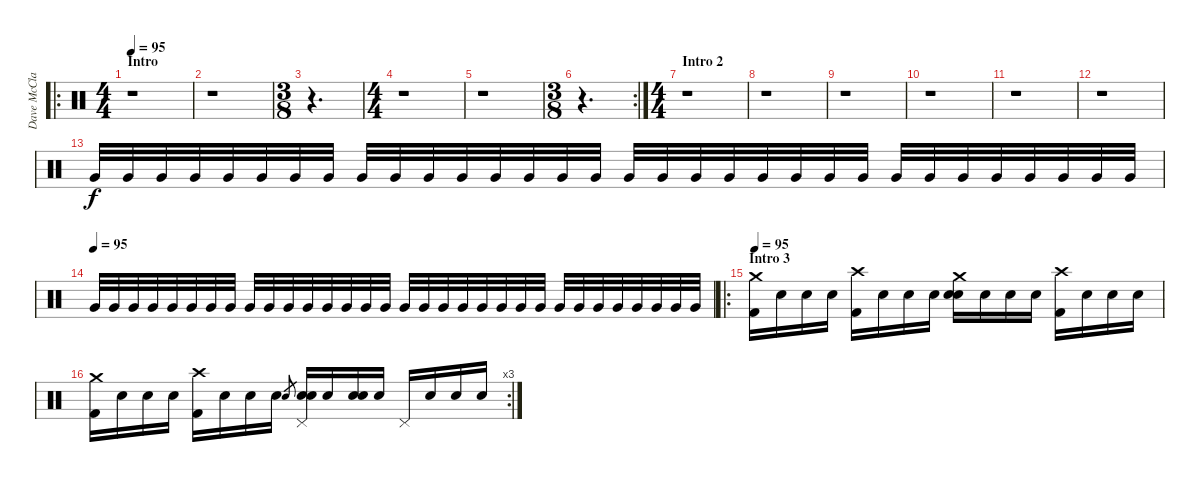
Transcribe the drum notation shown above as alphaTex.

\track ("Dave McClain - Drums" "Dave McCla") {instrument percussion}
\staff {score}
\articulation defaults
\ro
\ts (4 4)
\section ("" "Intro")
\tempo 95
\tempo 90
\tempo 95
\clef neutral
\ks c
r.1{dy f volume 16 balance 8} |
r.1 |
\ts (3 8)
r.4{d} |
\ts (4 4)
r.1 |
r.1 |
\rc 2
\ts (3 8)
r.4{d} |
\ts (4 4)
\section ("" "Intro 2")
r.1 |
r.1 |
r.1 |
r.1 |
r.1 |
r.1{volume 0 balance 8} |
"Very Low Tom (hit)".32{volume 14 balance 8} "Very Low Tom (hit)".32 "Very Low Tom (hit)".32 "Very Low Tom (hit)".32 "Very Low Tom (hit)".32 "Very Low Tom (hit)".32 "Very Low Tom (hit)".32 "Very Low Tom (hit)".32 "Very Low Tom (hit)".32 "Very Low Tom (hit)".32 "Very Low Tom (hit)".32 "Very Low Tom (hit)".32 "Very Low Tom (hit)".32 "Very Low Tom (hit)".32 "Very Low Tom (hit)".32 "Very Low Tom (hit)".32 "Very Low Tom (hit)".32 "Very Low Tom (hit)".32 "Very Low Tom (hit)".32 "Very Low Tom (hit)".32 "Very Low Tom (hit)".32 "Very Low Tom (hit)".32 "Very Low Tom (hit)".32 "Very Low Tom (hit)".32 "Very Low Tom (hit)".32 "Very Low Tom (hit)".32 "Very Low Tom (hit)".32 "Very Low Tom (hit)".32 "Very Low Tom (hit)".32 "Very Low Tom (hit)".32 "Very Low Tom (hit)".32 "Very Low Tom (hit)".32 |
\tempo (95)
"Very Low Tom (hit)".32 "Very Low Tom (hit)".32 "Very Low Tom (hit)".32 "Very Low Tom (hit)".32 "Very Low Tom (hit)".32 "Very Low Tom (hit)".32 "Very Low Tom (hit)".32 "Very Low Tom (hit)".32 "Very Low Tom (hit)".32 "Very Low Tom (hit)".32 "Very Low Tom (hit)".32 "Very Low Tom (hit)".32 "Very Low Tom (hit)".32 "Very Low Tom (hit)".32 "Very Low Tom (hit)".32 "Very Low Tom (hit)".32 "Very Low Tom (hit)".32 "Very Low Tom (hit)".32 "Very Low Tom (hit)".32 "Very Low Tom (hit)".32 "Very Low Tom (hit)".32 "Very Low Tom (hit)".32 "Very Low Tom (hit)".32 "Very Low Tom (hit)".32 "Very Low Tom (hit)".32 "Very Low Tom (hit)".32 "Very Low Tom (hit)".32 "Very Low Tom (hit)".32 "Very Low Tom (hit)".32 "Very Low Tom (hit)".32 "Very Low Tom (hit)".32 "Very Low Tom (hit)".32 |
\ro
\section ("" "Intro 3")
\tempo 95
("Crash medium (hit)" "Kick (hit) 2").16{volume 16 balance 8} "Snare (hit)".16 "Snare (hit)".16 "Snare (hit)".16 ("Crash high (hit)" "Kick (hit) 2").16 "Snare (hit)".16 "Snare (hit)".16 "Snare (hit)".16 ("Crash medium (hit)" "Electric Snare (hit)" "Snare (hit) 2").16 "Snare (hit)".16 "Snare (hit)".16 "Snare (hit)".16 ("Crash high (hit)" "Kick (hit) 2").16 "Snare (hit)".16 "Snare (hit)".16 "Snare (hit)".16 |
\rc 3
("Crash medium (hit)" "Kick (hit) 2").16 "Snare (hit)".16 "Snare (hit)".16 "Snare (hit)".16 ("Crash high (hit)" "Kick (hit) 2").16 "Snare (hit)".16 "Snare (hit)".16 "Snare (hit)".16 "Electric Snare (hit)".8{gr} ("Pedal Hi-Hat (hit)" "Electric Snare (hit)" "Snare (hit) 2").16 "Snare (hit)".16 ("Electric Snare (hit)" "Snare (hit) 2").16 "Snare (hit)".16 "Pedal Hi-Hat (hit)".16 "Snare (hit)".16 "Snare (hit)".16 "Snare (hit)".16
